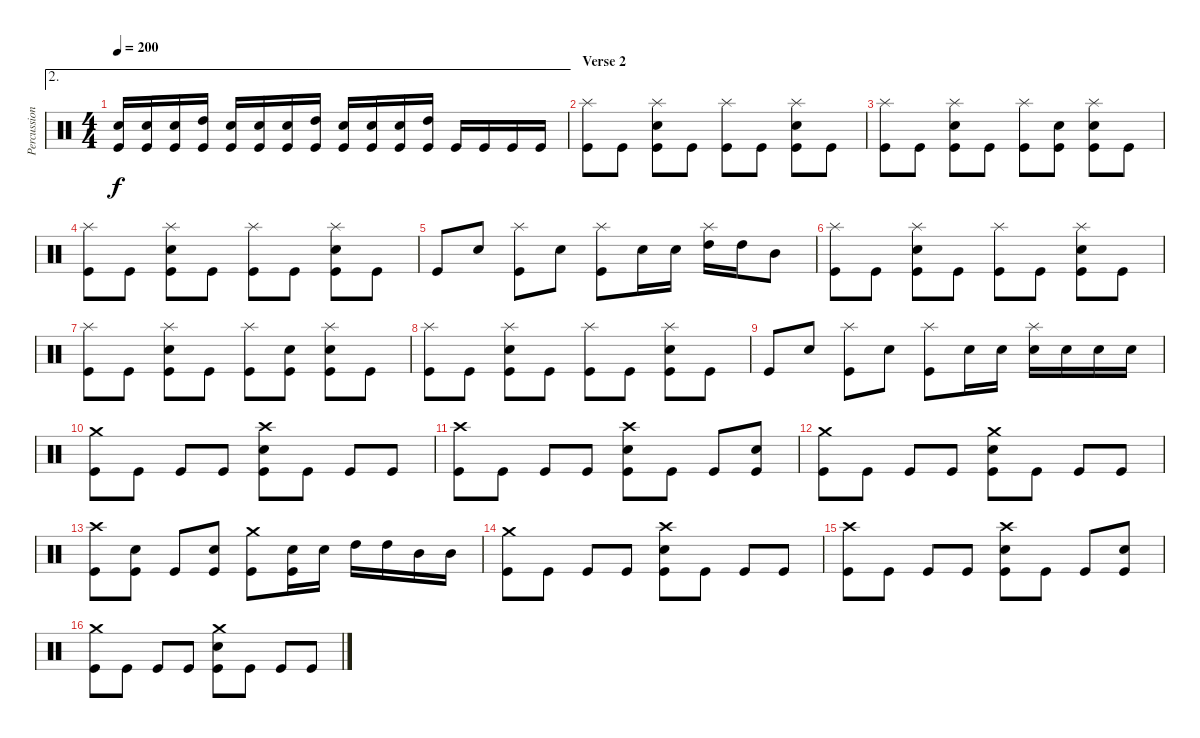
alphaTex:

\track ("Percussion" "Percussion") {instrument percussion}
\staff {score}
\articulation defaults
\ae 2
\ts (4 4)
\tempo 200
\clef neutral
\ks c
("Snare (hit) 2" "Kick (hit)").16{dy f} ("Snare (hit) 2" "Kick (hit)").16 ("Snare (hit) 2" "Kick (hit)").16 ("High Tom (hit)" "Kick (hit)").16 ("Snare (hit) 2" "Kick (hit)").16 ("Snare (hit) 2" "Kick (hit)").16 ("Snare (hit) 2" "Kick (hit)").16 ("High Tom (hit)" "Kick (hit)").16 ("Snare (hit) 2" "Kick (hit)").16 ("Snare (hit) 2" "Kick (hit)").16 ("Snare (hit) 2" "Kick (hit)").16 ("High Tom (hit)" "Kick (hit)").16 "Kick (hit)".16 "Kick (hit)".16 "Kick (hit)".16 "Kick (hit)".16 |
\section ("" "Verse 2")
("Splash (hit)" "Kick (hit)").8 "Kick (hit)".8 ("Splash (hit)" "Snare (hit) 2" "Kick (hit)").8 "Kick (hit)".8 ("Splash (hit)" "Kick (hit)").8 "Kick (hit)".8 ("Splash (hit)" "Snare (hit) 2" "Kick (hit)").8 "Kick (hit)".8 |
("Splash (hit)" "Kick (hit)").8 "Kick (hit)".8 ("Splash (hit)" "Snare (hit) 2" "Kick (hit)").8 "Kick (hit)".8 ("Splash (hit)" "Kick (hit)").8 ("Snare (hit) 2" "Kick (hit)").8 ("Splash (hit)" "Snare (hit) 2" "Kick (hit)").8 "Kick (hit)".8 |
("Splash (hit)" "Kick (hit)").8 "Kick (hit)".8 ("Splash (hit)" "Snare (hit) 2" "Kick (hit)").8 "Kick (hit)".8 ("Splash (hit)" "Kick (hit)").8 "Kick (hit)".8 ("Splash (hit)" "Snare (hit) 2" "Kick (hit)").8 "Kick (hit)".8 |
"Kick (hit)".8 "Snare (hit) 2".8 ("Splash (hit)" "Kick (hit)").8 "Snare (hit) 2".8 ("Splash (hit)" "Kick (hit)").8 "Snare (hit) 2".16 "Snare (hit) 2".16 ("Splash (hit)" "High Tom (hit)").16 "High Tom (hit)".16 "Mid Tom (hit)".8 |
("Splash (hit)" "Kick (hit)").8 "Kick (hit)".8 ("Splash (hit)" "Snare (hit) 2" "Kick (hit)").8 "Kick (hit)".8 ("Splash (hit)" "Kick (hit)").8 "Kick (hit)".8 ("Splash (hit)" "Snare (hit) 2" "Kick (hit)").8 "Kick (hit)".8 |
("Splash (hit)" "Kick (hit)").8 "Kick (hit)".8 ("Splash (hit)" "Snare (hit) 2" "Kick (hit)").8 "Kick (hit)".8 ("Splash (hit)" "Kick (hit)").8 ("Snare (hit) 2" "Kick (hit)").8 ("Splash (hit)" "Snare (hit) 2" "Kick (hit)").8 "Kick (hit)".8 |
("Splash (hit)" "Kick (hit)").8 "Kick (hit)".8 ("Splash (hit)" "Snare (hit) 2" "Kick (hit)").8 "Kick (hit)".8 ("Splash (hit)" "Kick (hit)").8 "Kick (hit)".8 ("Splash (hit)" "Snare (hit) 2" "Kick (hit)").8 "Kick (hit)".8 |
"Kick (hit)".8 "Snare (hit) 2".8 ("Splash (hit)" "Kick (hit)").8 "Snare (hit) 2".8 ("Splash (hit)" "Kick (hit)").8 "Snare (hit) 2".16 "Snare (hit) 2".16 ("Splash (hit)" "Snare (hit) 2").16 "Snare (hit) 2".16 "Snare (hit) 2".16 "Snare (hit) 2".16 |
("Crash medium (hit)" "Kick (hit)").8 "Kick (hit)".8 "Kick (hit)".8 "Kick (hit)".8 ("Crash high (hit)" "Snare (hit) 2" "Kick (hit)").8 "Kick (hit)".8 "Kick (hit)".8 "Kick (hit)".8 |
("Crash high (hit)" "Kick (hit)").8 "Kick (hit)".8 "Kick (hit)".8 "Kick (hit)".8 ("Crash high (hit)" "Snare (hit) 2" "Kick (hit)").8 "Kick (hit)".8 "Kick (hit)".8 ("Snare (hit) 2" "Kick (hit)").8 |
("Crash medium (hit)" "Kick (hit)").8 "Kick (hit)".8 "Kick (hit)".8 "Kick (hit)".8 ("Crash medium (hit)" "Snare (hit) 2" "Kick (hit)").8 "Kick (hit)".8 "Kick (hit)".8 "Kick (hit)".8 |
("Crash high (hit)" "Kick (hit)").8 ("Snare (hit) 2" "Kick (hit)").8 "Kick (hit)".8 ("Snare (hit) 2" "Kick (hit)").8 ("Crash medium (hit)" "Kick (hit)").8 ("Snare (hit) 2" "Kick (hit)").16 "Snare (hit) 2".16 "High Tom (hit)".16 "High Tom (hit)".16 "Mid Tom (hit)".16 "Mid Tom (hit)".16 |
("Crash medium (hit)" "Kick (hit)").8 "Kick (hit)".8 "Kick (hit)".8 "Kick (hit)".8 ("Crash high (hit)" "Snare (hit) 2" "Kick (hit)").8 "Kick (hit)".8 "Kick (hit)".8 "Kick (hit)".8 |
("Crash high (hit)" "Kick (hit)").8 "Kick (hit)".8 "Kick (hit)".8 "Kick (hit)".8 ("Crash high (hit)" "Snare (hit) 2" "Kick (hit)").8 "Kick (hit)".8 "Kick (hit)".8 ("Snare (hit) 2" "Kick (hit)").8 |
("Crash medium (hit)" "Kick (hit)").8 "Kick (hit)".8 "Kick (hit)".8 "Kick (hit)".8 ("Crash medium (hit)" "Snare (hit) 2" "Kick (hit)").8 "Kick (hit)".8 "Kick (hit)".8 "Kick (hit)".8
